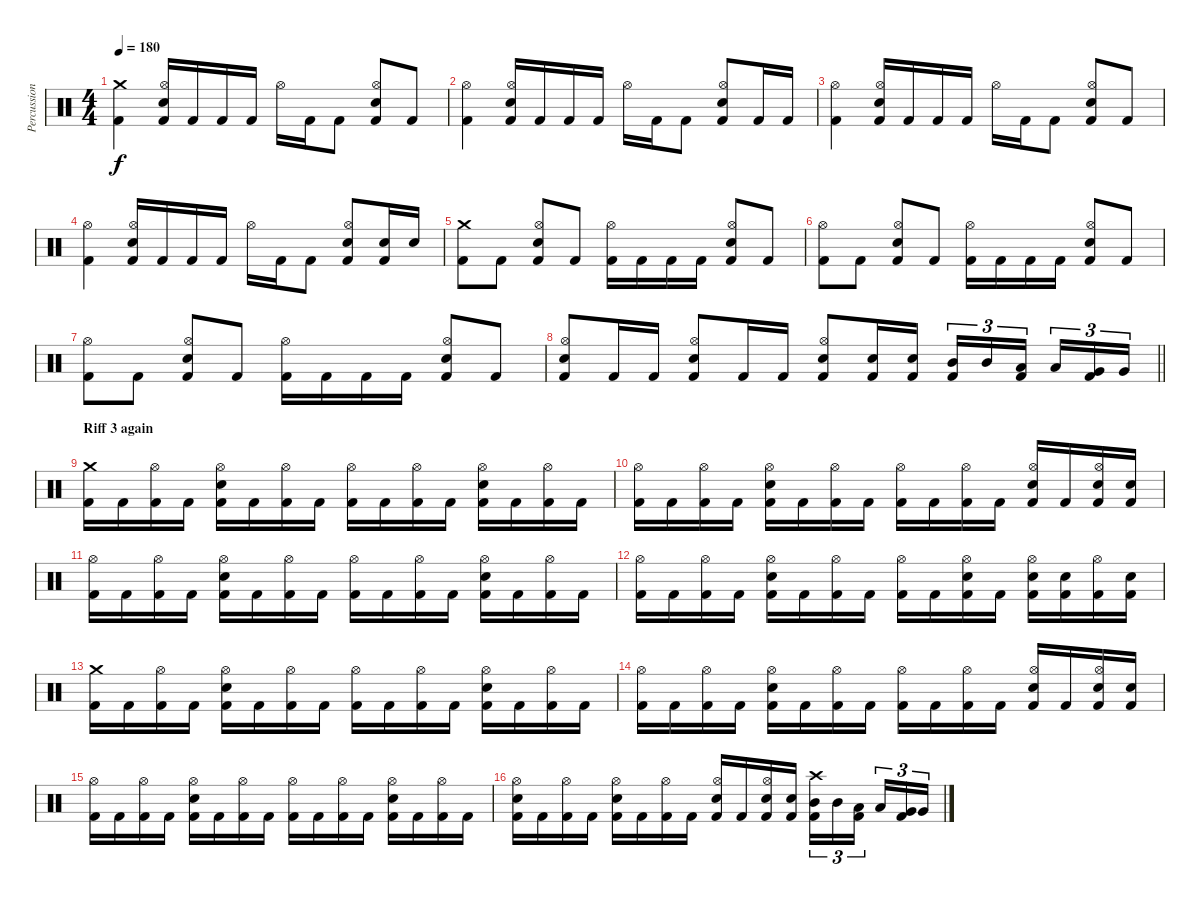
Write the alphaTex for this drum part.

\track ("Percussion" "Percussion") {instrument percussion}
\staff {score}
\articulation defaults
\ts (4 4)
\tempo 180
\clef neutral
\ks c
("Crash medium (hit)" "Kick (hit) 2").4{dy f} ("Kick (hit) 2" "Hi-Hat (open)" "Snare (hit) 2").16 "Kick (hit) 2".16 "Kick (hit) 2".16 "Kick (hit) 2".16 "Hi-Hat (open)".16 "Kick (hit) 2".16 "Kick (hit) 2".8 ("Kick (hit) 2" "Hi-Hat (open)" "Snare (hit) 2").8 "Kick (hit) 2".8 |
("Hi-Hat (open)" "Kick (hit) 2").4 ("Kick (hit) 2" "Hi-Hat (open)" "Snare (hit) 2").16 "Kick (hit) 2".16 "Kick (hit) 2".16 "Kick (hit) 2".16 "Hi-Hat (open)".16 "Kick (hit) 2".16 "Kick (hit) 2".8 ("Kick (hit) 2" "Hi-Hat (open)" "Snare (hit) 2").8 "Kick (hit) 2".16 "Kick (hit) 2".16 |
("Hi-Hat (open)" "Kick (hit) 2").4 ("Kick (hit) 2" "Hi-Hat (open)" "Snare (hit) 2").16 "Kick (hit) 2".16 "Kick (hit) 2".16 "Kick (hit) 2".16 "Hi-Hat (open)".16 "Kick (hit) 2".16 "Kick (hit) 2".8 ("Kick (hit) 2" "Hi-Hat (open)" "Snare (hit) 2").8 "Kick (hit) 2".8 |
("Hi-Hat (open)" "Kick (hit) 2").4 ("Kick (hit) 2" "Hi-Hat (open)" "Snare (hit) 2").16 "Kick (hit) 2".16 "Kick (hit) 2".16 "Kick (hit) 2".16 "Hi-Hat (open)".16 "Kick (hit) 2".16 "Kick (hit) 2".8 ("Kick (hit) 2" "Hi-Hat (open)" "Snare (hit) 2").8 ("Kick (hit) 2" "Snare (hit) 2").16 "Snare (hit) 2".16 |
("Crash medium (hit)" "Kick (hit) 2").8 "Kick (hit) 2".8 ("Kick (hit) 2" "Hi-Hat (open)" "Snare (hit) 2").8 "Kick (hit) 2".8 ("Hi-Hat (open)" "Kick (hit) 2").16 "Kick (hit) 2".16 "Kick (hit) 2".16 "Kick (hit) 2".16 ("Kick (hit) 2" "Hi-Hat (open)" "Snare (hit) 2").8 "Kick (hit) 2".8 |
("Hi-Hat (open)" "Kick (hit) 2").8 "Kick (hit) 2".8 ("Kick (hit) 2" "Hi-Hat (open)" "Snare (hit) 2").8 "Kick (hit) 2".8 ("Hi-Hat (open)" "Kick (hit) 2").16 "Kick (hit) 2".16 "Kick (hit) 2".16 "Kick (hit) 2".16 ("Kick (hit) 2" "Hi-Hat (open)" "Snare (hit) 2").8 "Kick (hit) 2".8 |
("Hi-Hat (open)" "Kick (hit) 2").8 "Kick (hit) 2".8 ("Kick (hit) 2" "Hi-Hat (open)" "Snare (hit) 2").8 "Kick (hit) 2".8 ("Hi-Hat (open)" "Kick (hit) 2").16 "Kick (hit) 2".16 "Kick (hit) 2".16 "Kick (hit) 2".16 ("Kick (hit) 2" "Hi-Hat (open)" "Snare (hit) 2").8 "Kick (hit) 2".8 |
\barLineRight lightlight
("Kick (hit) 2" "Hi-Hat (open)" "Snare (hit) 2").8 "Kick (hit) 2".16 "Kick (hit) 2".16 ("Kick (hit) 2" "Hi-Hat (open)" "Snare (hit) 2").8 "Kick (hit) 2".16 "Kick (hit) 2".16 ("Kick (hit) 2" "Hi-Hat (open)" "Snare (hit) 2").8 ("Kick (hit) 2" "Snare (hit) 2").16 ("Kick (hit) 2" "Snare (hit) 2").16 ("Kick (hit) 2" "Mid Tom (hit)").16{tu (3 2)} "Mid Tom (hit)".16{tu (3 2)} ("Kick (hit) 2" "Low Tom (hit)").16{tu (3 2)} "Low Tom (hit)".16{tu (3 2)} ("Kick (hit) 2" "Very Low Tom (hit)").16{tu (3 2)} "Very Low Tom (hit)".16{tu (3 2)} |
\section ("" "Riff 3 again")
("Crash medium (hit)" "Kick (hit) 2").16 "Kick (hit) 2".16 ("Hi-Hat (open)" "Kick (hit) 2").16 "Kick (hit) 2".16 ("Kick (hit) 2" "Hi-Hat (open)" "Snare (hit) 2").16 "Kick (hit) 2".16 ("Hi-Hat (open)" "Kick (hit) 2").16 "Kick (hit) 2".16 ("Hi-Hat (open)" "Kick (hit) 2").16 "Kick (hit) 2".16 ("Hi-Hat (open)" "Kick (hit) 2").16 "Kick (hit) 2".16 ("Kick (hit) 2" "Hi-Hat (open)" "Snare (hit) 2").16 "Kick (hit) 2".16 ("Hi-Hat (open)" "Kick (hit) 2").16 "Kick (hit) 2".16 |
("Hi-Hat (open)" "Kick (hit) 2").16 "Kick (hit) 2".16 ("Hi-Hat (open)" "Kick (hit) 2").16 "Kick (hit) 2".16 ("Kick (hit) 2" "Hi-Hat (open)" "Snare (hit) 2").16 "Kick (hit) 2".16 ("Hi-Hat (open)" "Kick (hit) 2").16 "Kick (hit) 2".16 ("Hi-Hat (open)" "Kick (hit) 2").16 "Kick (hit) 2".16 ("Hi-Hat (open)" "Kick (hit) 2").16 "Kick (hit) 2".16 ("Kick (hit) 2" "Hi-Hat (open)" "Snare (hit) 2").16 "Kick (hit) 2".16 ("Kick (hit) 2" "Hi-Hat (open)" "Snare (hit) 2").16 ("Kick (hit) 2" "Snare (hit) 2").16 |
("Hi-Hat (open)" "Kick (hit) 2").16 "Kick (hit) 2".16 ("Hi-Hat (open)" "Kick (hit) 2").16 "Kick (hit) 2".16 ("Kick (hit) 2" "Hi-Hat (open)" "Snare (hit) 2").16 "Kick (hit) 2".16 ("Hi-Hat (open)" "Kick (hit) 2").16 "Kick (hit) 2".16 ("Hi-Hat (open)" "Kick (hit) 2").16 "Kick (hit) 2".16 ("Hi-Hat (open)" "Kick (hit) 2").16 "Kick (hit) 2".16 ("Kick (hit) 2" "Hi-Hat (open)" "Snare (hit) 2").16 "Kick (hit) 2".16 ("Hi-Hat (open)" "Kick (hit) 2").16 "Kick (hit) 2".16 |
("Hi-Hat (open)" "Kick (hit) 2").16 "Kick (hit) 2".16 ("Hi-Hat (open)" "Kick (hit) 2").16 "Kick (hit) 2".16 ("Kick (hit) 2" "Hi-Hat (open)" "Snare (hit) 2").16 "Kick (hit) 2".16 ("Hi-Hat (open)" "Kick (hit) 2").16 "Kick (hit) 2".16 ("Hi-Hat (open)" "Kick (hit) 2").16 "Kick (hit) 2".16 ("Kick (hit) 2" "Hi-Hat (open)" "Snare (hit) 2").16 "Kick (hit) 2".16 ("Kick (hit) 2" "Hi-Hat (open)" "Snare (hit) 2").16 ("Kick (hit) 2" "Snare (hit) 2").16 ("Hi-Hat (open)" "Kick (hit) 2").16 ("Kick (hit) 2" "Snare (hit) 2").16 |
("Crash medium (hit)" "Kick (hit) 2").16 "Kick (hit) 2".16 ("Hi-Hat (open)" "Kick (hit) 2").16 "Kick (hit) 2".16 ("Kick (hit) 2" "Hi-Hat (open)" "Snare (hit) 2").16 "Kick (hit) 2".16 ("Hi-Hat (open)" "Kick (hit) 2").16 "Kick (hit) 2".16 ("Hi-Hat (open)" "Kick (hit) 2").16 "Kick (hit) 2".16 ("Hi-Hat (open)" "Kick (hit) 2").16 "Kick (hit) 2".16 ("Kick (hit) 2" "Hi-Hat (open)" "Snare (hit) 2").16 "Kick (hit) 2".16 ("Hi-Hat (open)" "Kick (hit) 2").16 "Kick (hit) 2".16 |
("Hi-Hat (open)" "Kick (hit) 2").16 "Kick (hit) 2".16 ("Hi-Hat (open)" "Kick (hit) 2").16 "Kick (hit) 2".16 ("Kick (hit) 2" "Hi-Hat (open)" "Snare (hit) 2").16 "Kick (hit) 2".16 ("Hi-Hat (open)" "Kick (hit) 2").16 "Kick (hit) 2".16 ("Hi-Hat (open)" "Kick (hit) 2").16 "Kick (hit) 2".16 ("Hi-Hat (open)" "Kick (hit) 2").16 "Kick (hit) 2".16 ("Kick (hit) 2" "Hi-Hat (open)" "Snare (hit) 2").16 "Kick (hit) 2".16 ("Kick (hit) 2" "Hi-Hat (open)" "Snare (hit) 2").16 ("Kick (hit) 2" "Snare (hit) 2").16 |
("Hi-Hat (open)" "Kick (hit) 2").16 "Kick (hit) 2".16 ("Hi-Hat (open)" "Kick (hit) 2").16 "Kick (hit) 2".16 ("Kick (hit) 2" "Hi-Hat (open)" "Snare (hit) 2").16 "Kick (hit) 2".16 ("Hi-Hat (open)" "Kick (hit) 2").16 "Kick (hit) 2".16 ("Hi-Hat (open)" "Kick (hit) 2").16 "Kick (hit) 2".16 ("Hi-Hat (open)" "Kick (hit) 2").16 "Kick (hit) 2".16 ("Kick (hit) 2" "Hi-Hat (open)" "Snare (hit) 2").16 "Kick (hit) 2".16 ("Hi-Hat (open)" "Kick (hit) 2").16 "Kick (hit) 2".16 |
("Kick (hit) 2" "Hi-Hat (open)" "Snare (hit) 2").16 "Kick (hit) 2".16 ("Hi-Hat (open)" "Kick (hit) 2").16 "Kick (hit) 2".16 ("Kick (hit) 2" "Hi-Hat (open)" "Snare (hit) 2").16 "Kick (hit) 2".16 ("Hi-Hat (open)" "Kick (hit) 2").16 "Kick (hit) 2".16 ("Kick (hit) 2" "Hi-Hat (open)" "Snare (hit) 2").16 "Kick (hit) 2".16 ("Kick (hit) 2" "Hi-Hat (open)" "Snare (hit) 2").16 ("Kick (hit) 2" "Snare (hit) 2").16 ("Kick (hit) 2" "Crash high (hit)" "Mid Tom (hit)").16{tu (3 2)} "Mid Tom (hit)".16{tu (3 2)} ("Kick (hit) 2" "Low Tom (hit)").16{tu (3 2)} "Low Tom (hit)".16{tu (3 2)} ("Kick (hit) 2" "Very Low Tom (hit)").16{tu (3 2)} "Very Low Tom (hit)".16{tu (3 2)}
